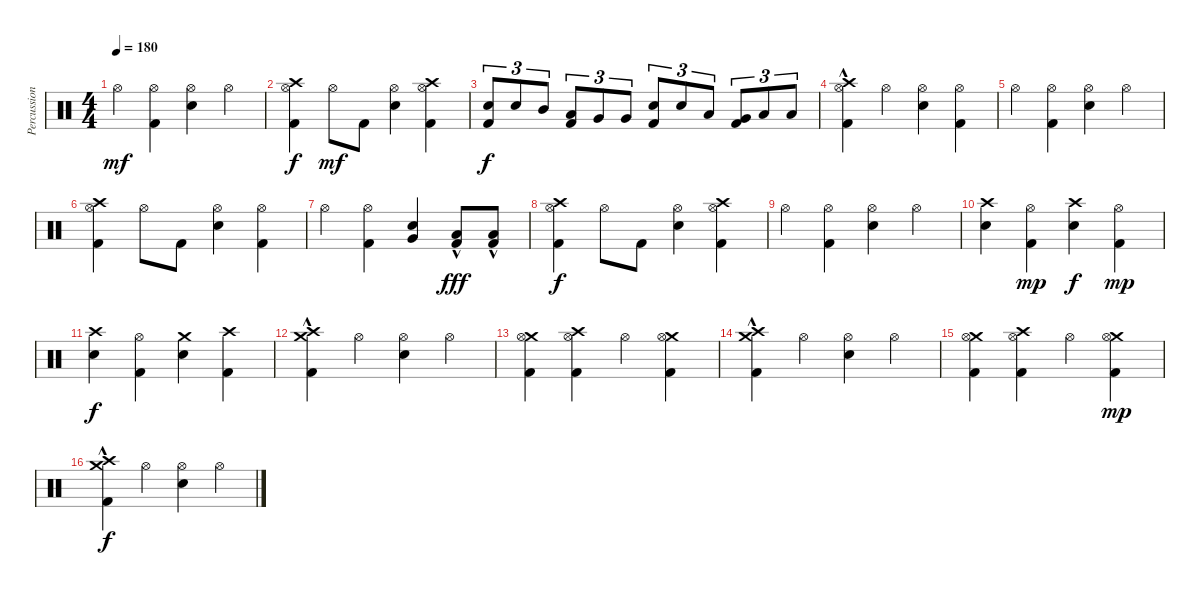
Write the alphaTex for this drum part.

\track ("Percussion" "Percussion") {instrument percussion}
\staff {score}
\articulation defaults
\ts (4 4)
\tempo 180
\clef neutral
\ks c "Hi-Hat (open)".4{dy mf}
("Hi-Hat (open)" "Kick (hit) 2").4 ("Hi-Hat (open)" "Electric Snare (hit)").4 "Hi-Hat (open)".4 |
("Crash high (hit)" "Hi-Hat (open)" "Kick (hit) 2").4{dy f} "Hi-Hat (open)".8{dy mf} "Kick (hit) 2".8 ("Hi-Hat (open)" "Electric Snare (hit)").4 ("Crash high (hit)" "Hi-Hat (open)" "Kick (hit) 2").4 |
("Electric Snare (hit)" "Kick (hit) 2").8{tu (3 2) dy f} "Electric Snare (hit)".8{tu (3 2)} "Mid Tom (hit)".8{tu (3 2)} ("Low Tom (hit)" "Kick (hit) 2").8{tu (3 2)} "Very Low Tom (hit)".8{tu (3 2)} "Very Low Tom (hit)".8{tu (3 2)} ("Electric Snare (hit)" "Kick (hit) 2").8{tu (3 2)} "Electric Snare (hit)".8{tu (3 2)} "Low Tom (hit)".8{tu (3 2)} ("Very Low Tom (hit)" "Kick (hit) 2").8{tu (3 2)} "Low Floor Tom (hit)".8{tu (3 2)} "Low Floor Tom (hit)".8{tu (3 2)} |
("Crash high (hit)"{hac} "Hi-Hat (open)"{hac} "Kick (hit) 2"{hac}).4 "Hi-Hat (open)".4 ("Hi-Hat (open)" "Electric Snare (hit)").4 ("Hi-Hat (open)" "Kick (hit) 2").4 |
"Hi-Hat (open)".4 ("Hi-Hat (open)" "Kick (hit) 2").4 ("Hi-Hat (open)" "Electric Snare (hit)").4 "Hi-Hat (open)".4 |
("Crash high (hit)" "Hi-Hat (open)" "Kick (hit) 2").4 "Hi-Hat (open)".8 "Kick (hit) 2".8 ("Hi-Hat (open)" "Electric Snare (hit)").4 ("Hi-Hat (open)" "Kick (hit) 2").4 |
"Hi-Hat (open)".4 ("Hi-Hat (open)" "Kick (hit) 2").4 ("Electric Snare (hit)" "Very Low Tom (hit)").4 ("Low Floor Tom (hit)"{hac} "Kick (hit) 2"{hac}).8{dy fff} ("Low Floor Tom (hit)" "Kick (hit) 2"{hac}).8 |
("Crash high (hit)" "Hi-Hat (open)" "Kick (hit) 2").4{dy f} "Hi-Hat (open)".8 "Kick (hit) 2".8 ("Hi-Hat (open)" "Electric Snare (hit)").4 ("Crash high (hit)" "Hi-Hat (open)" "Kick (hit) 2").4 |
"Hi-Hat (open)".4 ("Hi-Hat (open)" "Kick (hit) 2").4 ("Hi-Hat (open)" "Electric Snare (hit)").4 "Hi-Hat (open)".4 |
("Crash high (hit)" "Electric Snare (hit)").4 ("Hi-Hat (open)" "Kick (hit) 2").4{dy mp} ("Crash high (hit)" "Electric Snare (hit)").4{dy f} ("Hi-Hat (open)" "Kick (hit) 2").4{dy mp} |
("Crash high (hit)" "Electric Snare (hit)").4{dy f} ("Hi-Hat (open)" "Kick (hit) 2").4 ("Crash medium (hit)" "Electric Snare (hit)").4 ("Crash high (hit)" "Kick (hit) 2").4 |
("Crash high (hit)"{hac} "Crash medium (hit)" "Kick (hit) 2"{hac}).4 "Hi-Hat (open)".4 ("Hi-Hat (open)" "Electric Snare (hit)").4 "Hi-Hat (open)".4 |
("Crash medium (hit)" "Hi-Hat (open)" "Kick (hit) 2").4 ("Crash high (hit)" "Hi-Hat (open)" "Kick (hit) 2").4 "Hi-Hat (open)".4 ("Crash medium (hit)" "Hi-Hat (open)" "Kick (hit) 2").4 |
("Crash high (hit)"{hac} "Crash medium (hit)" "Kick (hit) 2"{hac}).4 "Hi-Hat (open)".4 ("Hi-Hat (open)" "Electric Snare (hit)").4 "Hi-Hat (open)".4 |
("Crash medium (hit)" "Hi-Hat (open)" "Kick (hit) 2").4 ("Crash high (hit)" "Hi-Hat (open)" "Kick (hit) 2").4 "Hi-Hat (open)".4 ("Crash medium (hit)" "Hi-Hat (open)" "Kick (hit) 2").4{dy mp} |
("Crash high (hit)"{hac} "Crash medium (hit)" "Kick (hit) 2"{hac}).4{dy f} "Hi-Hat (open)".4 ("Hi-Hat (open)" "Electric Snare (hit)").4 "Hi-Hat (open)".4
